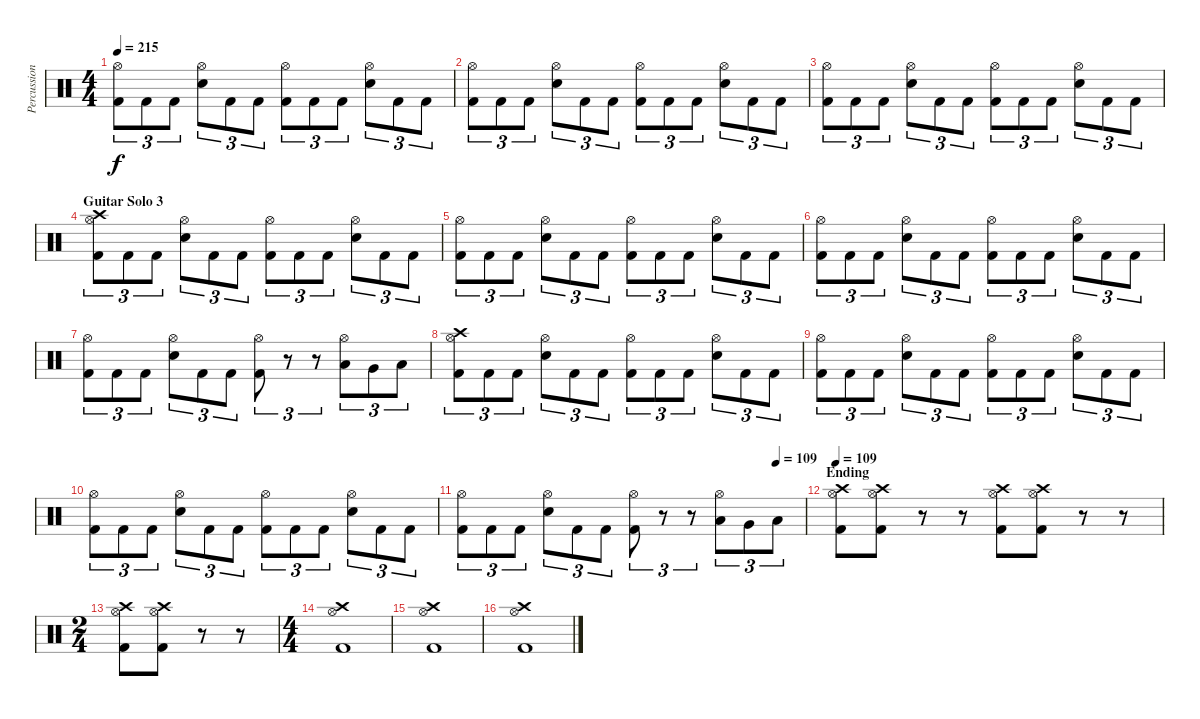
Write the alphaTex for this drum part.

\track ("Percussions" "Percussion") {instrument percussion}
\staff {score}
\articulation defaults
\ts (4 4)
\tempo 215
\clef neutral
\ks c
("Hi-Hat (open)" "Kick (hit) 2").8{tu (3 2) dy f} "Kick (hit) 2".8{tu (3 2)} "Kick (hit) 2".8{tu (3 2)} ("Hi-Hat (open)" "Electric Snare (hit)").8{tu (3 2)} "Kick (hit) 2".8{tu (3 2)} "Kick (hit) 2".8{tu (3 2)} ("Hi-Hat (open)" "Kick (hit) 2").8{tu (3 2)} "Kick (hit) 2".8{tu (3 2)} "Kick (hit) 2".8{tu (3 2)} ("Hi-Hat (open)" "Electric Snare (hit)").8{tu (3 2)} "Kick (hit) 2".8{tu (3 2)} "Kick (hit) 2".8{tu (3 2)} |
("Hi-Hat (open)" "Kick (hit) 2").8{tu (3 2)} "Kick (hit) 2".8{tu (3 2)} "Kick (hit) 2".8{tu (3 2)} ("Hi-Hat (open)" "Electric Snare (hit)").8{tu (3 2)} "Kick (hit) 2".8{tu (3 2)} "Kick (hit) 2".8{tu (3 2)} ("Hi-Hat (open)" "Kick (hit) 2").8{tu (3 2)} "Kick (hit) 2".8{tu (3 2)} "Kick (hit) 2".8{tu (3 2)} ("Hi-Hat (open)" "Electric Snare (hit)").8{tu (3 2)} "Kick (hit) 2".8{tu (3 2)} "Kick (hit) 2".8{tu (3 2)} |
("Hi-Hat (open)" "Kick (hit) 2").8{tu (3 2)} "Kick (hit) 2".8{tu (3 2)} "Kick (hit) 2".8{tu (3 2)} ("Hi-Hat (open)" "Electric Snare (hit)").8{tu (3 2)} "Kick (hit) 2".8{tu (3 2)} "Kick (hit) 2".8{tu (3 2)} ("Hi-Hat (open)" "Kick (hit) 2").8{tu (3 2)} "Kick (hit) 2".8{tu (3 2)} "Kick (hit) 2".8{tu (3 2)} ("Hi-Hat (open)" "Electric Snare (hit)").8{tu (3 2)} "Kick (hit) 2".8{tu (3 2)} "Kick (hit) 2".8{tu (3 2)} |
\section ("" "Guitar Solo 3")
("Crash high (hit)" "Hi-Hat (open)" "Kick (hit) 2").8{tu (3 2)} "Kick (hit) 2".8{tu (3 2)} "Kick (hit) 2".8{tu (3 2)} ("Hi-Hat (open)" "Electric Snare (hit)").8{tu (3 2)} "Kick (hit) 2".8{tu (3 2)} "Kick (hit) 2".8{tu (3 2)} ("Hi-Hat (open)" "Kick (hit) 2").8{tu (3 2)} "Kick (hit) 2".8{tu (3 2)} "Kick (hit) 2".8{tu (3 2)} ("Hi-Hat (open)" "Electric Snare (hit)").8{tu (3 2)} "Kick (hit) 2".8{tu (3 2)} "Kick (hit) 2".8{tu (3 2)} |
("Hi-Hat (open)" "Kick (hit) 2").8{tu (3 2)} "Kick (hit) 2".8{tu (3 2)} "Kick (hit) 2".8{tu (3 2)} ("Hi-Hat (open)" "Electric Snare (hit)").8{tu (3 2)} "Kick (hit) 2".8{tu (3 2)} "Kick (hit) 2".8{tu (3 2)} ("Hi-Hat (open)" "Kick (hit) 2").8{tu (3 2)} "Kick (hit) 2".8{tu (3 2)} "Kick (hit) 2".8{tu (3 2)} ("Hi-Hat (open)" "Electric Snare (hit)").8{tu (3 2)} "Kick (hit) 2".8{tu (3 2)} "Kick (hit) 2".8{tu (3 2)} |
("Hi-Hat (open)" "Kick (hit) 2").8{tu (3 2)} "Kick (hit) 2".8{tu (3 2)} "Kick (hit) 2".8{tu (3 2)} ("Hi-Hat (open)" "Electric Snare (hit)").8{tu (3 2)} "Kick (hit) 2".8{tu (3 2)} "Kick (hit) 2".8{tu (3 2)} ("Hi-Hat (open)" "Kick (hit) 2").8{tu (3 2)} "Kick (hit) 2".8{tu (3 2)} "Kick (hit) 2".8{tu (3 2)} ("Hi-Hat (open)" "Electric Snare (hit)").8{tu (3 2)} "Kick (hit) 2".8{tu (3 2)} "Kick (hit) 2".8{tu (3 2)} |
("Hi-Hat (open)" "Kick (hit) 2").8{tu (3 2)} "Kick (hit) 2".8{tu (3 2)} "Kick (hit) 2".8{tu (3 2)} ("Hi-Hat (open)" "Electric Snare (hit)").8{tu (3 2)} "Kick (hit) 2".8{tu (3 2)} "Kick (hit) 2".8{tu (3 2)} ("Hi-Hat (open)" "Kick (hit) 2").8{tu (3 2)} r.8{tu (3 2)} r.8{tu (3 2)} ("Hi-Hat (open)" "Low Tom (hit)").8{tu (3 2)} "Very Low Tom (hit)".8{tu (3 2)} "Low Floor Tom (hit)".8{tu (3 2)} |
("Crash high (hit)" "Hi-Hat (open)" "Kick (hit) 2").8{tu (3 2)} "Kick (hit) 2".8{tu (3 2)} "Kick (hit) 2".8{tu (3 2)} ("Hi-Hat (open)" "Electric Snare (hit)").8{tu (3 2)} "Kick (hit) 2".8{tu (3 2)} "Kick (hit) 2".8{tu (3 2)} ("Hi-Hat (open)" "Kick (hit) 2").8{tu (3 2)} "Kick (hit) 2".8{tu (3 2)} "Kick (hit) 2".8{tu (3 2)} ("Hi-Hat (open)" "Electric Snare (hit)").8{tu (3 2)} "Kick (hit) 2".8{tu (3 2)} "Kick (hit) 2".8{tu (3 2)} |
("Hi-Hat (open)" "Kick (hit) 2").8{tu (3 2)} "Kick (hit) 2".8{tu (3 2)} "Kick (hit) 2".8{tu (3 2)} ("Hi-Hat (open)" "Electric Snare (hit)").8{tu (3 2)} "Kick (hit) 2".8{tu (3 2)} "Kick (hit) 2".8{tu (3 2)} ("Hi-Hat (open)" "Kick (hit) 2").8{tu (3 2)} "Kick (hit) 2".8{tu (3 2)} "Kick (hit) 2".8{tu (3 2)} ("Hi-Hat (open)" "Electric Snare (hit)").8{tu (3 2)} "Kick (hit) 2".8{tu (3 2)} "Kick (hit) 2".8{tu (3 2)} |
("Hi-Hat (open)" "Kick (hit) 2").8{tu (3 2)} "Kick (hit) 2".8{tu (3 2)} "Kick (hit) 2".8{tu (3 2)} ("Hi-Hat (open)" "Electric Snare (hit)").8{tu (3 2)} "Kick (hit) 2".8{tu (3 2)} "Kick (hit) 2".8{tu (3 2)} ("Hi-Hat (open)" "Kick (hit) 2").8{tu (3 2)} "Kick (hit) 2".8{tu (3 2)} "Kick (hit) 2".8{tu (3 2)} ("Hi-Hat (open)" "Electric Snare (hit)").8{tu (3 2)} "Kick (hit) 2".8{tu (3 2)} "Kick (hit) 2".8{tu (3 2)} |
\tempo (109 0.9166666666666666)
("Hi-Hat (open)" "Kick (hit) 2").8{tu (3 2)} "Kick (hit) 2".8{tu (3 2)} "Kick (hit) 2".8{tu (3 2)} ("Hi-Hat (open)" "Electric Snare (hit)").8{tu (3 2)} "Kick (hit) 2".8{tu (3 2)} "Kick (hit) 2".8{tu (3 2)} ("Hi-Hat (open)" "Kick (hit) 2").8{tu (3 2)} r.8{tu (3 2)} r.8{tu (3 2)} ("Hi-Hat (open)" "Low Tom (hit)").8{tu (3 2)} "Very Low Tom (hit)".8{tu (3 2)} "Low Floor Tom (hit)".8{tu (3 2)} |
\section ("" "Ending")
\tempo 109
("Crash high (hit)" "Hi-Hat (open)" "Kick (hit) 2").8 ("Crash high (hit)" "Hi-Hat (open)" "Kick (hit) 2").8 r.8 r.8 ("Crash high (hit)" "Hi-Hat (open)" "Kick (hit) 2").8 ("Crash high (hit)" "Hi-Hat (open)" "Kick (hit) 2").8 r.8 r.8 |
\ts (2 4)
("Crash high (hit)" "Hi-Hat (open)" "Kick (hit) 2").8 ("Crash high (hit)" "Hi-Hat (open)" "Kick (hit) 2").8 r.8 r.8 |
\ts (4 4)
("Crash high (hit)" "Hi-Hat (open)" "Kick (hit) 2").1 |
("Crash high (hit)" "Hi-Hat (open)" "Kick (hit) 2").1 |
("Crash high (hit)" "Hi-Hat (open)" "Kick (hit) 2").1
